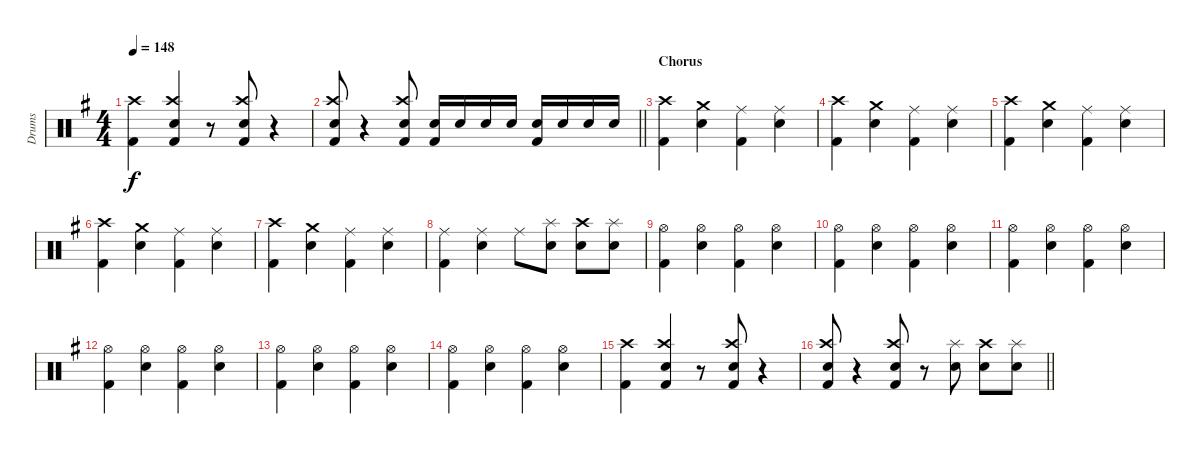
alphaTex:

\track ("Drums" "Drums") {instrument percussion}
\staff {score}
\articulation defaults
\ts (4 4)
\tempo 148
\clef neutral
\ks g
("Kick (hit) 2" "Crash high (hit)").4{dy f} ("Snare (hit) 2" "Crash high (hit)" "Kick (hit) 2").4 r.8 ("Snare (hit) 2" "Crash high (hit)" "Kick (hit) 2").8 r.4 |
\barLineRight lightlight
("Snare (hit) 2" "Crash high (hit)" "Kick (hit) 2").8 r.4 ("Snare (hit) 2" "Crash high (hit)" "Kick (hit) 2").8 ("Kick (hit) 2" "Snare (hit) 2").16 "Snare (hit) 2".16 "Snare (hit) 2".16 "Snare (hit) 2".16 ("Kick (hit) 2" "Snare (hit) 2").16 "Snare (hit) 2".16 "Snare (hit) 2".16 "Snare (hit) 2".16 |
\section ("" "Chorus")
("Kick (hit) 2" "Crash high (hit)").4 ("Snare (hit) 2" "Crash medium (hit)").4 ("Kick (hit) 2" "Ride (middle)").4 ("Snare (hit) 2" "Ride (middle)").4 |
("Kick (hit) 2" "Crash high (hit)").4 ("Snare (hit) 2" "Crash medium (hit)").4 ("Kick (hit) 2" "Ride (middle)").4 ("Snare (hit) 2" "Ride (middle)").4 |
("Kick (hit) 2" "Crash high (hit)").4 ("Snare (hit) 2" "Crash medium (hit)").4 ("Kick (hit) 2" "Ride (middle)").4 ("Snare (hit) 2" "Ride (middle)").4 |
("Kick (hit) 2" "Crash high (hit)").4 ("Snare (hit) 2" "Crash medium (hit)").4 ("Kick (hit) 2" "Ride (middle)").4 ("Snare (hit) 2" "Ride (middle)").4 |
("Kick (hit) 2" "Crash high (hit)").4 ("Snare (hit) 2" "Crash medium (hit)").4 ("Kick (hit) 2" "Ride (middle)").4 ("Snare (hit) 2" "Ride (middle)").4 |
("Kick (hit) 2" "Ride (middle)").4 ("Snare (hit) 2" "Ride (middle)").4 "Ride (middle)".8 ("Snare (hit) 2" "Splash (hit)").8 ("Snare (hit) 2" "Crash high (hit)").8 ("Snare (hit) 2" "Splash (hit)").8 |
("Kick (hit) 2" "Hi-Hat (open)").4 ("Snare (hit) 2" "Hi-Hat (open)").4 ("Kick (hit) 2" "Hi-Hat (open)").4 ("Snare (hit) 2" "Hi-Hat (open)").4 |
("Kick (hit) 2" "Hi-Hat (open)").4 ("Snare (hit) 2" "Hi-Hat (open)").4 ("Kick (hit) 2" "Hi-Hat (open)").4 ("Snare (hit) 2" "Hi-Hat (open)").4 |
("Kick (hit) 2" "Hi-Hat (open)").4 ("Snare (hit) 2" "Hi-Hat (open)").4 ("Kick (hit) 2" "Hi-Hat (open)").4 ("Snare (hit) 2" "Hi-Hat (open)").4 |
("Kick (hit) 2" "Hi-Hat (open)").4 ("Snare (hit) 2" "Hi-Hat (open)").4 ("Kick (hit) 2" "Hi-Hat (open)").4 ("Snare (hit) 2" "Hi-Hat (open)").4 |
("Kick (hit) 2" "Hi-Hat (open)").4 ("Snare (hit) 2" "Hi-Hat (open)").4 ("Kick (hit) 2" "Hi-Hat (open)").4 ("Snare (hit) 2" "Hi-Hat (open)").4 |
("Kick (hit) 2" "Hi-Hat (open)").4 ("Snare (hit) 2" "Hi-Hat (open)").4 ("Kick (hit) 2" "Hi-Hat (open)").4 ("Snare (hit) 2" "Hi-Hat (open)").4 |
("Kick (hit) 2" "Crash high (hit)").4 ("Snare (hit) 2" "Crash high (hit)" "Kick (hit) 2").4 r.8 ("Snare (hit) 2" "Crash high (hit)" "Kick (hit) 2").8 r.4 |
\barLineRight lightlight
("Snare (hit) 2" "Crash high (hit)" "Kick (hit) 2").8 r.4 ("Snare (hit) 2" "Crash high (hit)" "Kick (hit) 2").8 r.8 ("Snare (hit) 2" "Splash (hit)").8 ("Snare (hit) 2" "Crash high (hit)").8 ("Snare (hit) 2" "Splash (hit)").8
